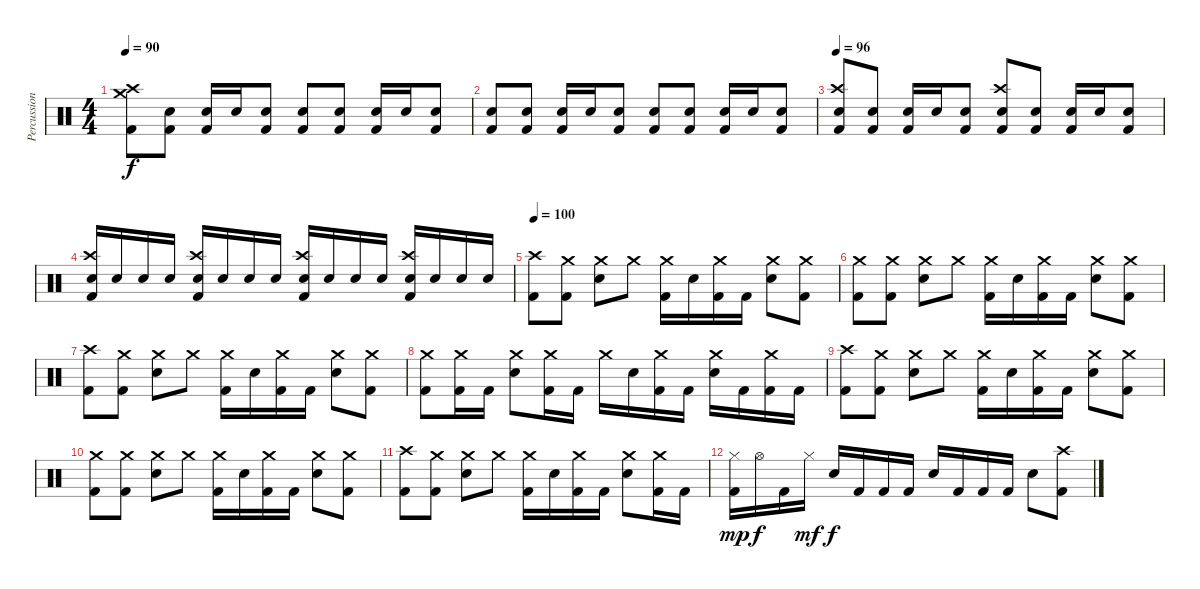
\track ("Percussion" "Percussion") {instrument percussion}
\staff {score}
\articulation defaults
\ts (4 4)
\tempo 90
\clef neutral
\ks c
("Kick (hit) 2" "Crash high (hit)" "Crash medium (hit)").8{dy f} ("Kick (hit) 2" "Electric Snare (hit)").8 ("Kick (hit) 2" "Electric Snare (hit)").16 "Electric Snare (hit)".16 ("Kick (hit) 2" "Electric Snare (hit)").8 ("Kick (hit) 2" "Electric Snare (hit)").8 ("Kick (hit) 2" "Electric Snare (hit)").8 ("Kick (hit) 2" "Electric Snare (hit)").16 "Electric Snare (hit)".16 ("Kick (hit) 2" "Electric Snare (hit)").8 |
("Kick (hit) 2" "Electric Snare (hit)").8 ("Kick (hit) 2" "Electric Snare (hit)").8 ("Kick (hit) 2" "Electric Snare (hit)").16 "Electric Snare (hit)".16 ("Kick (hit) 2" "Electric Snare (hit)").8 ("Kick (hit) 2" "Electric Snare (hit)").8 ("Kick (hit) 2" "Electric Snare (hit)").8 ("Kick (hit) 2" "Electric Snare (hit)").16 "Electric Snare (hit)".16 ("Kick (hit) 2" "Electric Snare (hit)").8 |
\tempo 96
("Kick (hit) 2" "Electric Snare (hit)" "Crash high (hit)").8 ("Kick (hit) 2" "Electric Snare (hit)").8 ("Kick (hit) 2" "Electric Snare (hit)").16 "Electric Snare (hit)".16 ("Kick (hit) 2" "Electric Snare (hit)").8 ("Kick (hit) 2" "Electric Snare (hit)" "Crash high (hit)").8 ("Kick (hit) 2" "Electric Snare (hit)").8 ("Kick (hit) 2" "Electric Snare (hit)").16 "Electric Snare (hit)".16 ("Kick (hit) 2" "Electric Snare (hit)").8 |
("Kick (hit) 2" "Electric Snare (hit)" "Crash high (hit)").16 "Electric Snare (hit)".16 "Electric Snare (hit)".16 "Electric Snare (hit)".16 ("Kick (hit) 2" "Electric Snare (hit)" "Crash high (hit)").16 "Electric Snare (hit)".16 "Electric Snare (hit)".16 "Electric Snare (hit)".16 ("Kick (hit) 2" "Electric Snare (hit)" "Crash high (hit)").16 "Electric Snare (hit)".16 "Electric Snare (hit)".16 "Electric Snare (hit)".16 ("Kick (hit) 2" "Electric Snare (hit)" "Crash high (hit)").16 "Electric Snare (hit)".16 "Electric Snare (hit)".16 "Electric Snare (hit)".16 |
\tempo 100
("Kick (hit) 2" "Crash high (hit)").8 ("Kick (hit) 2" "Crash medium (hit)").8 ("Electric Snare (hit)" "Crash medium (hit)").8 "Crash medium (hit)".8 ("Kick (hit) 2" "Crash medium (hit)").16 "Electric Snare (hit)".16 ("Kick (hit) 2" "Crash medium (hit)").16 "Kick (hit) 2".16 ("Electric Snare (hit)" "Crash medium (hit)").8 ("Kick (hit) 2" "Crash medium (hit)").8 |
("Kick (hit) 2" "Crash medium (hit)").8 ("Kick (hit) 2" "Crash medium (hit)").8 ("Electric Snare (hit)" "Crash medium (hit)").8 "Crash medium (hit)".8 ("Kick (hit) 2" "Crash medium (hit)").16 "Electric Snare (hit)".16 ("Kick (hit) 2" "Crash medium (hit)").16 "Kick (hit) 2".16 ("Electric Snare (hit)" "Crash medium (hit)").8 ("Kick (hit) 2" "Crash medium (hit)").8 |
("Kick (hit) 2" "Crash high (hit)").8 ("Kick (hit) 2" "Crash medium (hit)").8 ("Electric Snare (hit)" "Crash medium (hit)").8 "Crash medium (hit)".8 ("Kick (hit) 2" "Crash medium (hit)").16 "Electric Snare (hit)".16 ("Kick (hit) 2" "Crash medium (hit)").16 "Kick (hit) 2".16 ("Electric Snare (hit)" "Crash medium (hit)").8 ("Kick (hit) 2" "Crash medium (hit)").8 |
("Kick (hit) 2" "Crash medium (hit)").8 ("Kick (hit) 2" "Crash medium (hit)").16 "Kick (hit) 2".16 ("Electric Snare (hit)" "Crash medium (hit)").8 ("Kick (hit) 2" "Crash medium (hit)").16 "Kick (hit) 2".16 "Crash medium (hit)".16 "Electric Snare (hit)".16 ("Kick (hit) 2" "Crash medium (hit)").16 "Kick (hit) 2".16 ("Electric Snare (hit)" "Crash medium (hit)").16 "Kick (hit) 2".16 ("Kick (hit) 2" "Crash medium (hit)").16 "Kick (hit) 2".16 |
("Kick (hit) 2" "Crash high (hit)").8 ("Kick (hit) 2" "Crash medium (hit)").8 ("Electric Snare (hit)" "Crash medium (hit)").8 "Crash medium (hit)".8 ("Kick (hit) 2" "Crash medium (hit)").16 "Electric Snare (hit)".16 ("Kick (hit) 2" "Crash medium (hit)").16 "Kick (hit) 2".16 ("Electric Snare (hit)" "Crash medium (hit)").8 ("Kick (hit) 2" "Crash medium (hit)").8 |
("Kick (hit) 2" "Crash medium (hit)").8 ("Kick (hit) 2" "Crash medium (hit)").8 ("Electric Snare (hit)" "Crash medium (hit)").8 "Crash medium (hit)".8 ("Kick (hit) 2" "Crash medium (hit)").16 "Electric Snare (hit)".16 ("Kick (hit) 2" "Crash medium (hit)").16 "Kick (hit) 2".16 ("Electric Snare (hit)" "Crash medium (hit)").8 ("Kick (hit) 2" "Crash medium (hit)").8 |
("Kick (hit) 2" "Crash high (hit)").8 ("Kick (hit) 2" "Crash medium (hit)").8 ("Electric Snare (hit)" "Crash medium (hit)").8 "Crash medium (hit)".8 ("Kick (hit) 2" "Crash medium (hit)").16 "Electric Snare (hit)".16 ("Kick (hit) 2" "Crash medium (hit)").16 "Kick (hit) 2".16 ("Electric Snare (hit)" "Crash medium (hit)").8 ("Kick (hit) 2" "Crash medium (hit)").16 "Kick (hit) 2".16 |
("Kick (hit) 2" "Hi-Hat (closed)").16{dy mp} "Hi-Hat (open)".16{dy f} "Kick (hit) 2".16 "Hi-Hat (closed)".16{dy mf} "Electric Snare (hit)".16{dy f} "Kick (hit) 2".16 "Kick (hit) 2".16 "Kick (hit) 2".16 "Electric Snare (hit)".16 "Kick (hit) 2".16 "Kick (hit) 2".16 "Kick (hit) 2".16 "Electric Snare (hit)".8 ("Kick (hit) 2" "Crash high (hit)").8
